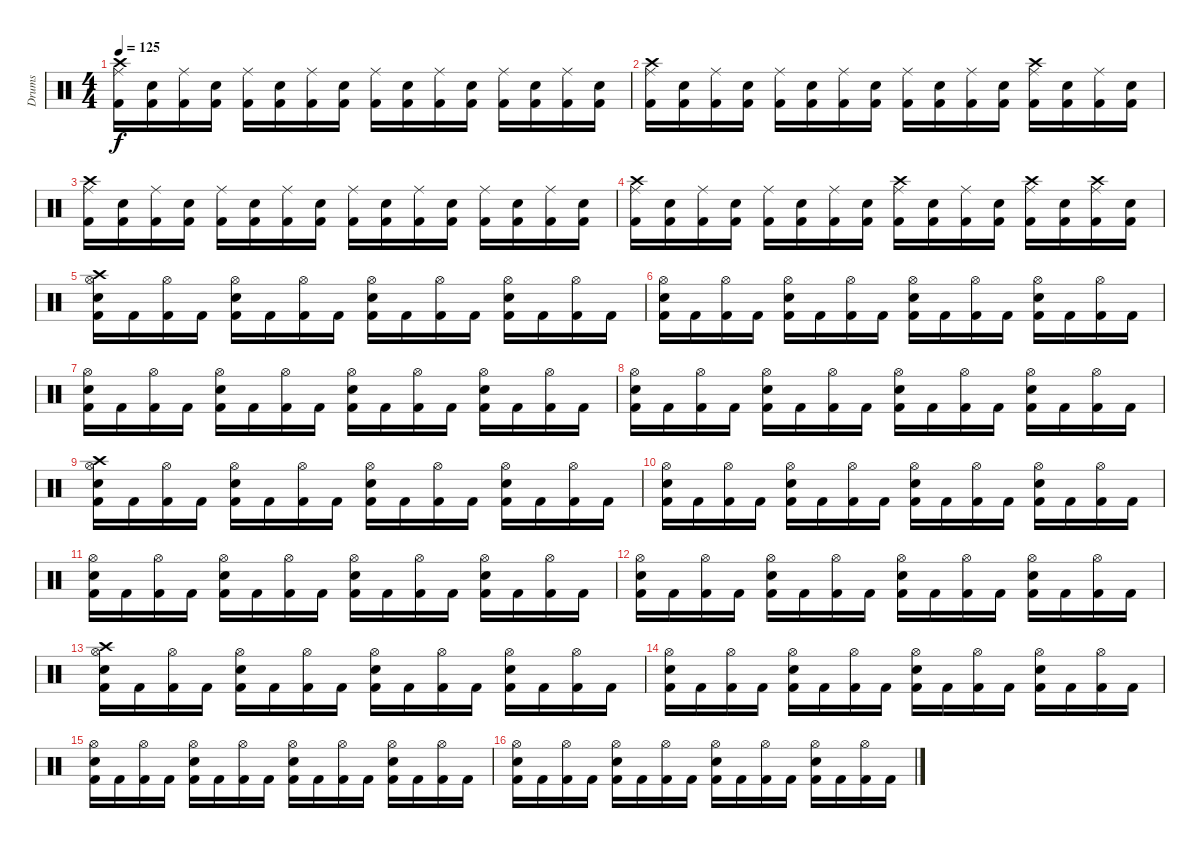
\track ("Drums" "Drums") {instrument percussion}
\staff {score}
\articulation defaults
\ts (4 4)
\tempo 125
\clef neutral
\ks c
("Crash high (hit)" "Ride (middle)" "Kick (hit) 2").16{dy f} ("Snare (hit) 2" "Kick (hit) 2").16 ("Ride (middle)" "Kick (hit) 2").16 ("Snare (hit) 2" "Kick (hit) 2").16 ("Ride (middle)" "Kick (hit) 2").16 ("Snare (hit) 2" "Kick (hit) 2").16 ("Ride (middle)" "Kick (hit) 2").16 ("Snare (hit) 2" "Kick (hit) 2").16 ("Ride (middle)" "Kick (hit) 2").16 ("Snare (hit) 2" "Kick (hit) 2").16 ("Ride (middle)" "Kick (hit) 2").16 ("Snare (hit) 2" "Kick (hit) 2").16 ("Ride (middle)" "Kick (hit) 2").16 ("Snare (hit) 2" "Kick (hit) 2").16 ("Ride (middle)" "Kick (hit) 2").16 ("Snare (hit) 2" "Kick (hit) 2").16 |
("Crash high (hit)" "Ride (middle)" "Kick (hit) 2").16 ("Snare (hit) 2" "Kick (hit) 2").16 ("Ride (middle)" "Kick (hit) 2").16 ("Snare (hit) 2" "Kick (hit) 2").16 ("Ride (middle)" "Kick (hit) 2").16 ("Snare (hit) 2" "Kick (hit) 2").16 ("Ride (middle)" "Kick (hit) 2").16 ("Snare (hit) 2" "Kick (hit) 2").16 ("Ride (middle)" "Kick (hit) 2").16 ("Snare (hit) 2" "Kick (hit) 2").16 ("Ride (middle)" "Kick (hit) 2").16 ("Snare (hit) 2" "Kick (hit) 2").16 ("Crash high (hit)" "Ride (middle)" "Kick (hit) 2").16 ("Snare (hit) 2" "Kick (hit) 2").16 ("Ride (middle)" "Kick (hit) 2").16 ("Snare (hit) 2" "Kick (hit) 2").16 |
("Crash high (hit)" "Ride (middle)" "Kick (hit) 2").16 ("Snare (hit) 2" "Kick (hit) 2").16 ("Ride (middle)" "Kick (hit) 2").16 ("Snare (hit) 2" "Kick (hit) 2").16 ("Ride (middle)" "Kick (hit) 2").16 ("Snare (hit) 2" "Kick (hit) 2").16 ("Ride (middle)" "Kick (hit) 2").16 ("Snare (hit) 2" "Kick (hit) 2").16 ("Ride (middle)" "Kick (hit) 2").16 ("Snare (hit) 2" "Kick (hit) 2").16 ("Ride (middle)" "Kick (hit) 2").16 ("Snare (hit) 2" "Kick (hit) 2").16 ("Ride (middle)" "Kick (hit) 2").16 ("Snare (hit) 2" "Kick (hit) 2").16 ("Ride (middle)" "Kick (hit) 2").16 ("Snare (hit) 2" "Kick (hit) 2").16 |
("Crash high (hit)" "Ride (middle)" "Kick (hit) 2").16 ("Snare (hit) 2" "Kick (hit) 2").16 ("Ride (middle)" "Kick (hit) 2").16 ("Snare (hit) 2" "Kick (hit) 2").16 ("Ride (middle)" "Kick (hit) 2").16 ("Snare (hit) 2" "Kick (hit) 2").16 ("Ride (middle)" "Kick (hit) 2").16 ("Snare (hit) 2" "Kick (hit) 2").16 ("Crash high (hit)" "Ride (middle)" "Kick (hit) 2").16 ("Snare (hit) 2" "Kick (hit) 2").16 ("Ride (middle)" "Kick (hit) 2").16 ("Snare (hit) 2" "Kick (hit) 2").16 ("Crash high (hit)" "Ride (middle)" "Kick (hit) 2").16 ("Snare (hit) 2" "Kick (hit) 2").16 ("Crash high (hit)" "Ride (middle)" "Kick (hit) 2").16 ("Snare (hit) 2" "Kick (hit) 2").16 |
("Crash high (hit)" "Hi-Hat (open)" "Snare (hit) 2" "Kick (hit) 2").16 "Kick (hit) 2".16 ("Hi-Hat (open)" "Kick (hit) 2").16 "Kick (hit) 2".16 ("Hi-Hat (open)" "Snare (hit) 2" "Kick (hit) 2").16 "Kick (hit) 2".16 ("Hi-Hat (open)" "Kick (hit) 2").16 "Kick (hit) 2".16 ("Hi-Hat (open)" "Snare (hit) 2" "Kick (hit) 2").16 "Kick (hit) 2".16 ("Hi-Hat (open)" "Kick (hit) 2").16 "Kick (hit) 2".16 ("Hi-Hat (open)" "Snare (hit) 2" "Kick (hit) 2").16 "Kick (hit) 2".16 ("Hi-Hat (open)" "Kick (hit) 2").16 "Kick (hit) 2".16 |
("Hi-Hat (open)" "Snare (hit) 2" "Kick (hit) 2").16 "Kick (hit) 2".16 ("Hi-Hat (open)" "Kick (hit) 2").16 "Kick (hit) 2".16 ("Hi-Hat (open)" "Snare (hit) 2" "Kick (hit) 2").16 "Kick (hit) 2".16 ("Hi-Hat (open)" "Kick (hit) 2").16 "Kick (hit) 2".16 ("Hi-Hat (open)" "Snare (hit) 2" "Kick (hit) 2").16 "Kick (hit) 2".16 ("Hi-Hat (open)" "Kick (hit) 2").16 "Kick (hit) 2".16 ("Hi-Hat (open)" "Snare (hit) 2" "Kick (hit) 2").16 "Kick (hit) 2".16 ("Hi-Hat (open)" "Kick (hit) 2").16 "Kick (hit) 2".16 |
("Hi-Hat (open)" "Snare (hit) 2" "Kick (hit) 2").16 "Kick (hit) 2".16 ("Hi-Hat (open)" "Kick (hit) 2").16 "Kick (hit) 2".16 ("Hi-Hat (open)" "Snare (hit) 2" "Kick (hit) 2").16 "Kick (hit) 2".16 ("Hi-Hat (open)" "Kick (hit) 2").16 "Kick (hit) 2".16 ("Hi-Hat (open)" "Snare (hit) 2" "Kick (hit) 2").16 "Kick (hit) 2".16 ("Hi-Hat (open)" "Kick (hit) 2").16 "Kick (hit) 2".16 ("Hi-Hat (open)" "Snare (hit) 2" "Kick (hit) 2").16 "Kick (hit) 2".16 ("Hi-Hat (open)" "Kick (hit) 2").16 "Kick (hit) 2".16 |
("Hi-Hat (open)" "Snare (hit) 2" "Kick (hit) 2").16 "Kick (hit) 2".16 ("Hi-Hat (open)" "Kick (hit) 2").16 "Kick (hit) 2".16 ("Hi-Hat (open)" "Snare (hit) 2" "Kick (hit) 2").16 "Kick (hit) 2".16 ("Hi-Hat (open)" "Kick (hit) 2").16 "Kick (hit) 2".16 ("Hi-Hat (open)" "Snare (hit) 2" "Kick (hit) 2").16 "Kick (hit) 2".16 ("Hi-Hat (open)" "Kick (hit) 2").16 "Kick (hit) 2".16 ("Hi-Hat (open)" "Snare (hit) 2" "Kick (hit) 2").16 "Kick (hit) 2".16 ("Hi-Hat (open)" "Kick (hit) 2").16 "Kick (hit) 2".16 |
("Crash high (hit)" "Hi-Hat (open)" "Snare (hit) 2" "Kick (hit) 2").16 "Kick (hit) 2".16 ("Hi-Hat (open)" "Kick (hit) 2").16 "Kick (hit) 2".16 ("Hi-Hat (open)" "Snare (hit) 2" "Kick (hit) 2").16 "Kick (hit) 2".16 ("Hi-Hat (open)" "Kick (hit) 2").16 "Kick (hit) 2".16 ("Hi-Hat (open)" "Snare (hit) 2" "Kick (hit) 2").16 "Kick (hit) 2".16 ("Hi-Hat (open)" "Kick (hit) 2").16 "Kick (hit) 2".16 ("Hi-Hat (open)" "Snare (hit) 2" "Kick (hit) 2").16 "Kick (hit) 2".16 ("Hi-Hat (open)" "Kick (hit) 2").16 "Kick (hit) 2".16 |
("Hi-Hat (open)" "Snare (hit) 2" "Kick (hit) 2").16 "Kick (hit) 2".16 ("Hi-Hat (open)" "Kick (hit) 2").16 "Kick (hit) 2".16 ("Hi-Hat (open)" "Snare (hit) 2" "Kick (hit) 2").16 "Kick (hit) 2".16 ("Hi-Hat (open)" "Kick (hit) 2").16 "Kick (hit) 2".16 ("Hi-Hat (open)" "Snare (hit) 2" "Kick (hit) 2").16 "Kick (hit) 2".16 ("Hi-Hat (open)" "Kick (hit) 2").16 "Kick (hit) 2".16 ("Hi-Hat (open)" "Snare (hit) 2" "Kick (hit) 2").16 "Kick (hit) 2".16 ("Hi-Hat (open)" "Kick (hit) 2").16 "Kick (hit) 2".16 |
("Hi-Hat (open)" "Snare (hit) 2" "Kick (hit) 2").16 "Kick (hit) 2".16 ("Hi-Hat (open)" "Kick (hit) 2").16 "Kick (hit) 2".16 ("Hi-Hat (open)" "Snare (hit) 2" "Kick (hit) 2").16 "Kick (hit) 2".16 ("Hi-Hat (open)" "Kick (hit) 2").16 "Kick (hit) 2".16 ("Hi-Hat (open)" "Snare (hit) 2" "Kick (hit) 2").16 "Kick (hit) 2".16 ("Hi-Hat (open)" "Kick (hit) 2").16 "Kick (hit) 2".16 ("Hi-Hat (open)" "Snare (hit) 2" "Kick (hit) 2").16 "Kick (hit) 2".16 ("Hi-Hat (open)" "Kick (hit) 2").16 "Kick (hit) 2".16 |
("Hi-Hat (open)" "Snare (hit) 2" "Kick (hit) 2").16 "Kick (hit) 2".16 ("Hi-Hat (open)" "Kick (hit) 2").16 "Kick (hit) 2".16 ("Hi-Hat (open)" "Snare (hit) 2" "Kick (hit) 2").16 "Kick (hit) 2".16 ("Hi-Hat (open)" "Kick (hit) 2").16 "Kick (hit) 2".16 ("Hi-Hat (open)" "Snare (hit) 2" "Kick (hit) 2").16 "Kick (hit) 2".16 ("Hi-Hat (open)" "Kick (hit) 2").16 "Kick (hit) 2".16 ("Hi-Hat (open)" "Snare (hit) 2" "Kick (hit) 2").16 "Kick (hit) 2".16 ("Hi-Hat (open)" "Kick (hit) 2").16 "Kick (hit) 2".16 |
("Crash high (hit)" "Hi-Hat (open)" "Snare (hit) 2" "Kick (hit) 2").16 "Kick (hit) 2".16 ("Hi-Hat (open)" "Kick (hit) 2").16 "Kick (hit) 2".16 ("Hi-Hat (open)" "Snare (hit) 2" "Kick (hit) 2").16 "Kick (hit) 2".16 ("Hi-Hat (open)" "Kick (hit) 2").16 "Kick (hit) 2".16 ("Hi-Hat (open)" "Snare (hit) 2" "Kick (hit) 2").16 "Kick (hit) 2".16 ("Hi-Hat (open)" "Kick (hit) 2").16 "Kick (hit) 2".16 ("Hi-Hat (open)" "Snare (hit) 2" "Kick (hit) 2").16 "Kick (hit) 2".16 ("Hi-Hat (open)" "Kick (hit) 2").16 "Kick (hit) 2".16 |
("Hi-Hat (open)" "Snare (hit) 2" "Kick (hit) 2").16 "Kick (hit) 2".16 ("Hi-Hat (open)" "Kick (hit) 2").16 "Kick (hit) 2".16 ("Hi-Hat (open)" "Snare (hit) 2" "Kick (hit) 2").16 "Kick (hit) 2".16 ("Hi-Hat (open)" "Kick (hit) 2").16 "Kick (hit) 2".16 ("Hi-Hat (open)" "Snare (hit) 2" "Kick (hit) 2").16 "Kick (hit) 2".16 ("Hi-Hat (open)" "Kick (hit) 2").16 "Kick (hit) 2".16 ("Hi-Hat (open)" "Snare (hit) 2" "Kick (hit) 2").16 "Kick (hit) 2".16 ("Hi-Hat (open)" "Kick (hit) 2").16 "Kick (hit) 2".16 |
("Hi-Hat (open)" "Snare (hit) 2" "Kick (hit) 2").16 "Kick (hit) 2".16 ("Hi-Hat (open)" "Kick (hit) 2").16 "Kick (hit) 2".16 ("Hi-Hat (open)" "Snare (hit) 2" "Kick (hit) 2").16 "Kick (hit) 2".16 ("Hi-Hat (open)" "Kick (hit) 2").16 "Kick (hit) 2".16 ("Hi-Hat (open)" "Snare (hit) 2" "Kick (hit) 2").16 "Kick (hit) 2".16 ("Hi-Hat (open)" "Kick (hit) 2").16 "Kick (hit) 2".16 ("Hi-Hat (open)" "Snare (hit) 2" "Kick (hit) 2").16 "Kick (hit) 2".16 ("Hi-Hat (open)" "Kick (hit) 2").16 "Kick (hit) 2".16 |
("Hi-Hat (open)" "Snare (hit) 2" "Kick (hit) 2").16 "Kick (hit) 2".16 ("Hi-Hat (open)" "Kick (hit) 2").16 "Kick (hit) 2".16 ("Hi-Hat (open)" "Snare (hit) 2" "Kick (hit) 2").16 "Kick (hit) 2".16 ("Hi-Hat (open)" "Kick (hit) 2").16 "Kick (hit) 2".16 ("Hi-Hat (open)" "Snare (hit) 2" "Kick (hit) 2").16 "Kick (hit) 2".16 ("Hi-Hat (open)" "Kick (hit) 2").16 "Kick (hit) 2".16 ("Hi-Hat (open)" "Snare (hit) 2" "Kick (hit) 2").16 "Kick (hit) 2".16 ("Hi-Hat (open)" "Kick (hit) 2").16 "Kick (hit) 2".16
